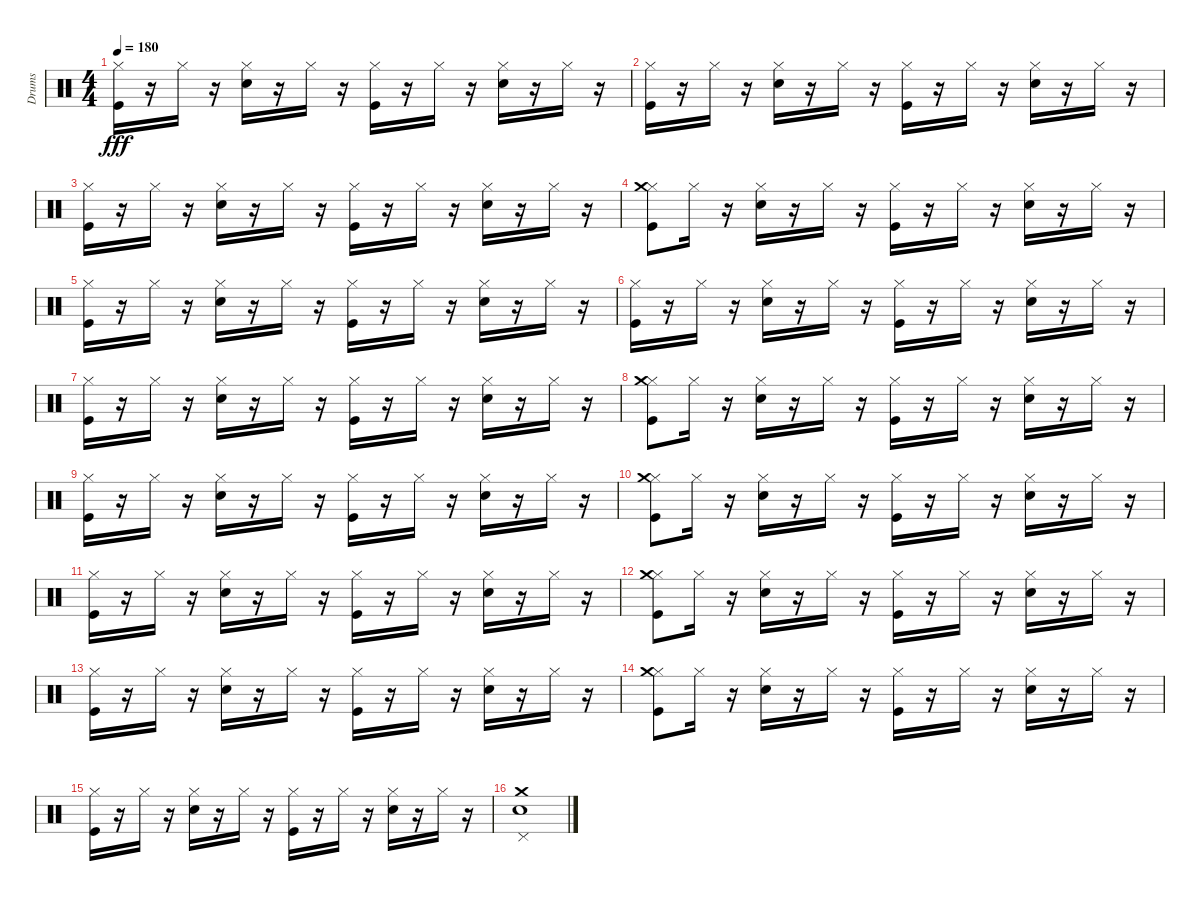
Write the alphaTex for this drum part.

\track ("Drums" "Drums") {instrument percussion}
\staff {score}
\articulation defaults
\ts (4 4)
\tempo 180
\clef neutral
\ks c
("Hi-Hat (closed)" "Kick (hit)").16{dy fff} r.16 "Hi-Hat (closed)".16 r.16 ("Hi-Hat (closed)" "Snare (hit) 2").16 r.16 "Hi-Hat (closed)".16 r.16 ("Hi-Hat (closed)" "Kick (hit)").16 r.16 "Hi-Hat (closed)".16 r.16 ("Hi-Hat (closed)" "Snare (hit) 2").16 r.16 "Hi-Hat (closed)".16 r.16 |
("Kick (hit)" "Hi-Hat (closed)").16 r.16 "Hi-Hat (closed)".16 r.16 ("Snare (hit) 2" "Hi-Hat (closed)").16 r.16 "Hi-Hat (closed)".16 r.16 ("Kick (hit)" "Hi-Hat (closed)").16 r.16 "Hi-Hat (closed)".16 r.16 ("Snare (hit) 2" "Hi-Hat (closed)").16 r.16 "Hi-Hat (closed)".16 r.16 |
("Hi-Hat (closed)" "Kick (hit)").16 r.16 "Hi-Hat (closed)".16 r.16 ("Hi-Hat (closed)" "Snare (hit) 2").16 r.16 "Hi-Hat (closed)".16 r.16 ("Hi-Hat (closed)" "Kick (hit)").16 r.16 "Hi-Hat (closed)".16 r.16 ("Hi-Hat (closed)" "Snare (hit) 2").16 r.16 "Hi-Hat (closed)".16 r.16 |
("Kick (hit)" "Hi-Hat (closed)" "Crash medium (hit)").8 "Hi-Hat (closed)".16 r.16 ("Snare (hit) 2" "Hi-Hat (closed)").16 r.16 "Hi-Hat (closed)".16 r.16 ("Kick (hit)" "Hi-Hat (closed)").16 r.16 "Hi-Hat (closed)".16 r.16 ("Snare (hit) 2" "Hi-Hat (closed)").16 r.16 "Hi-Hat (closed)".16 r.16 |
("Hi-Hat (closed)" "Kick (hit)").16 r.16 "Hi-Hat (closed)".16 r.16 ("Hi-Hat (closed)" "Snare (hit) 2").16 r.16 "Hi-Hat (closed)".16 r.16 ("Hi-Hat (closed)" "Kick (hit)").16 r.16 "Hi-Hat (closed)".16 r.16 ("Hi-Hat (closed)" "Snare (hit) 2").16 r.16 "Hi-Hat (closed)".16 r.16 |
("Kick (hit)" "Hi-Hat (closed)").16 r.16 "Hi-Hat (closed)".16 r.16 ("Snare (hit) 2" "Hi-Hat (closed)").16 r.16 "Hi-Hat (closed)".16 r.16 ("Kick (hit)" "Hi-Hat (closed)").16 r.16 "Hi-Hat (closed)".16 r.16 ("Snare (hit) 2" "Hi-Hat (closed)").16 r.16 "Hi-Hat (closed)".16 r.16 |
("Hi-Hat (closed)" "Kick (hit)").16 r.16 "Hi-Hat (closed)".16 r.16 ("Hi-Hat (closed)" "Snare (hit) 2").16 r.16 "Hi-Hat (closed)".16 r.16 ("Hi-Hat (closed)" "Kick (hit)").16 r.16 "Hi-Hat (closed)".16 r.16 ("Hi-Hat (closed)" "Snare (hit) 2").16 r.16 "Hi-Hat (closed)".16 r.16 |
("Kick (hit)" "Hi-Hat (closed)" "Crash medium (hit)").8 "Hi-Hat (closed)".16 r.16 ("Snare (hit) 2" "Hi-Hat (closed)").16 r.16 "Hi-Hat (closed)".16 r.16 ("Kick (hit)" "Hi-Hat (closed)").16 r.16 "Hi-Hat (closed)".16 r.16 ("Snare (hit) 2" "Hi-Hat (closed)").16 r.16 "Hi-Hat (closed)".16 r.16 |
("Hi-Hat (closed)" "Kick (hit)").16 r.16 "Hi-Hat (closed)".16 r.16 ("Hi-Hat (closed)" "Snare (hit) 2").16 r.16 "Hi-Hat (closed)".16 r.16 ("Hi-Hat (closed)" "Kick (hit)").16 r.16 "Hi-Hat (closed)".16 r.16 ("Hi-Hat (closed)" "Snare (hit) 2").16 r.16 "Hi-Hat (closed)".16 r.16 |
("Kick (hit)" "Hi-Hat (closed)" "Crash medium (hit)").8 "Hi-Hat (closed)".16 r.16 ("Snare (hit) 2" "Hi-Hat (closed)").16 r.16 "Hi-Hat (closed)".16 r.16 ("Kick (hit)" "Hi-Hat (closed)").16 r.16 "Hi-Hat (closed)".16 r.16 ("Snare (hit) 2" "Hi-Hat (closed)").16 r.16 "Hi-Hat (closed)".16 r.16 |
("Hi-Hat (closed)" "Kick (hit)").16 r.16 "Hi-Hat (closed)".16 r.16 ("Hi-Hat (closed)" "Snare (hit) 2").16 r.16 "Hi-Hat (closed)".16 r.16 ("Hi-Hat (closed)" "Kick (hit)").16 r.16 "Hi-Hat (closed)".16 r.16 ("Hi-Hat (closed)" "Snare (hit) 2").16 r.16 "Hi-Hat (closed)".16 r.16 |
("Kick (hit)" "Hi-Hat (closed)" "Crash medium (hit)").8 "Hi-Hat (closed)".16 r.16 ("Snare (hit) 2" "Hi-Hat (closed)").16 r.16 "Hi-Hat (closed)".16 r.16 ("Kick (hit)" "Hi-Hat (closed)").16 r.16 "Hi-Hat (closed)".16 r.16 ("Snare (hit) 2" "Hi-Hat (closed)").16 r.16 "Hi-Hat (closed)".16 r.16 |
("Hi-Hat (closed)" "Kick (hit)").16 r.16 "Hi-Hat (closed)".16 r.16 ("Hi-Hat (closed)" "Snare (hit) 2").16 r.16 "Hi-Hat (closed)".16 r.16 ("Hi-Hat (closed)" "Kick (hit)").16 r.16 "Hi-Hat (closed)".16 r.16 ("Hi-Hat (closed)" "Snare (hit) 2").16 r.16 "Hi-Hat (closed)".16 r.16 |
("Kick (hit)" "Hi-Hat (closed)" "Crash medium (hit)").8 "Hi-Hat (closed)".16 r.16 ("Snare (hit) 2" "Hi-Hat (closed)").16 r.16 "Hi-Hat (closed)".16 r.16 ("Kick (hit)" "Hi-Hat (closed)").16 r.16 "Hi-Hat (closed)".16 r.16 ("Snare (hit) 2" "Hi-Hat (closed)").16 r.16 "Hi-Hat (closed)".16 r.16 |
("Hi-Hat (closed)" "Kick (hit)").16 r.16 "Hi-Hat (closed)".16 r.16 ("Hi-Hat (closed)" "Snare (hit) 2").16 r.16 "Hi-Hat (closed)".16 r.16 ("Hi-Hat (closed)" "Kick (hit)").16 r.16 "Hi-Hat (closed)".16 r.16 ("Hi-Hat (closed)" "Snare (hit) 2").16 r.16 "Hi-Hat (closed)".16 r.16 |
("Snare (hit) 2" "Pedal Hi-Hat (hit)" "Crash medium (hit)").1
